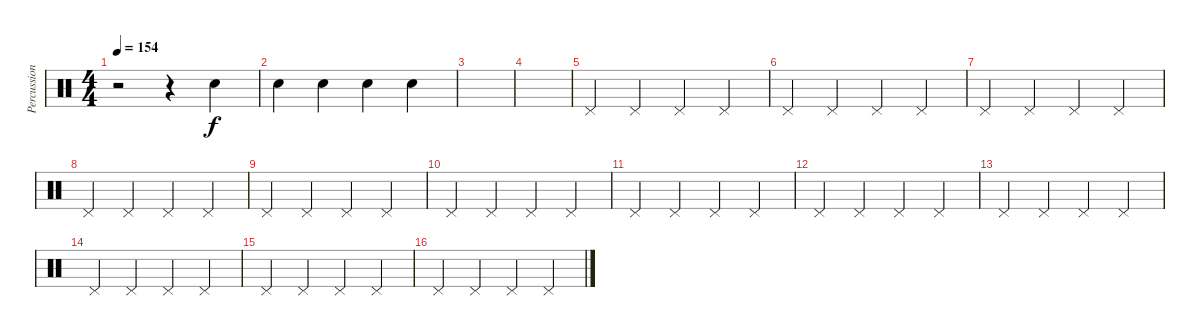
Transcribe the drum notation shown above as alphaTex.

\track ("Percussion" "Percussion") {instrument percussion}
\staff {score}
\articulation defaults
\ts (4 4)
\tempo 154
\clef neutral
\ks c
r.2{dy f} r.4 "Metronome (bell)".4 |
"Metronome (bell)".4 "Metronome (bell)".4 "Metronome (bell)".4 "Metronome (bell)".4 |
|
|
"Pedal Hi-Hat (hit)".4 "Pedal Hi-Hat (hit)".4 "Pedal Hi-Hat (hit)".4 "Pedal Hi-Hat (hit)".4 |
"Pedal Hi-Hat (hit)".4 "Pedal Hi-Hat (hit)".4 "Pedal Hi-Hat (hit)".4 "Pedal Hi-Hat (hit)".4 |
"Pedal Hi-Hat (hit)".4 "Pedal Hi-Hat (hit)".4 "Pedal Hi-Hat (hit)".4 "Pedal Hi-Hat (hit)".4 |
"Pedal Hi-Hat (hit)".4 "Pedal Hi-Hat (hit)".4 "Pedal Hi-Hat (hit)".4 "Pedal Hi-Hat (hit)".4 |
"Pedal Hi-Hat (hit)".4 "Pedal Hi-Hat (hit)".4 "Pedal Hi-Hat (hit)".4 "Pedal Hi-Hat (hit)".4 |
"Pedal Hi-Hat (hit)".4 "Pedal Hi-Hat (hit)".4 "Pedal Hi-Hat (hit)".4 "Pedal Hi-Hat (hit)".4 |
"Pedal Hi-Hat (hit)".4 "Pedal Hi-Hat (hit)".4 "Pedal Hi-Hat (hit)".4 "Pedal Hi-Hat (hit)".4 |
"Pedal Hi-Hat (hit)".4 "Pedal Hi-Hat (hit)".4 "Pedal Hi-Hat (hit)".4 "Pedal Hi-Hat (hit)".4 |
"Pedal Hi-Hat (hit)".4 "Pedal Hi-Hat (hit)".4 "Pedal Hi-Hat (hit)".4 "Pedal Hi-Hat (hit)".4 |
"Pedal Hi-Hat (hit)".4 "Pedal Hi-Hat (hit)".4 "Pedal Hi-Hat (hit)".4 "Pedal Hi-Hat (hit)".4 |
"Pedal Hi-Hat (hit)".4 "Pedal Hi-Hat (hit)".4 "Pedal Hi-Hat (hit)".4 "Pedal Hi-Hat (hit)".4 |
"Pedal Hi-Hat (hit)".4 "Pedal Hi-Hat (hit)".4 "Pedal Hi-Hat (hit)".4 "Pedal Hi-Hat (hit)".4
